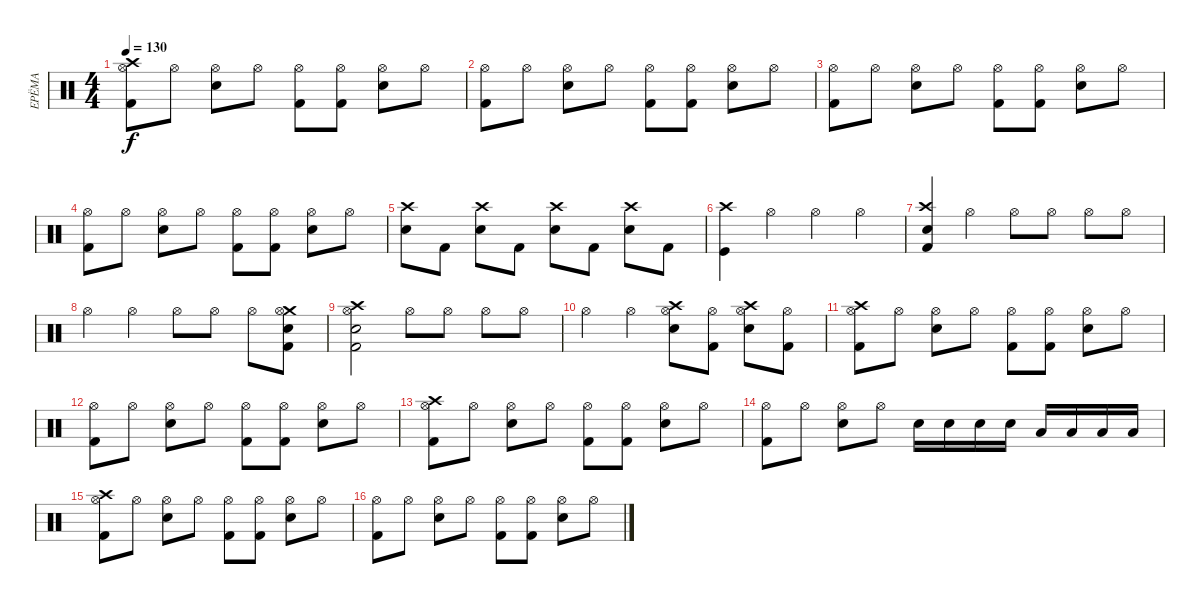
\track ("ЕРЁМА" "ЕРЁМА") {instrument percussion}
\staff {score}
\articulation defaults
\ts (4 4)
\tempo 130
\clef neutral
\ks c
("Hi-Hat (open)" "Kick (hit) 2" "Crash high (hit)").8{dy f} "Hi-Hat (open)".8 ("Hi-Hat (open)" "Electric Snare (hit)").8 "Hi-Hat (open)".8 ("Hi-Hat (open)" "Kick (hit) 2").8 ("Hi-Hat (open)" "Kick (hit) 2").8 ("Hi-Hat (open)" "Electric Snare (hit)").8 "Hi-Hat (open)".8 |
("Hi-Hat (open)" "Kick (hit) 2").8 "Hi-Hat (open)".8 ("Hi-Hat (open)" "Electric Snare (hit)").8 "Hi-Hat (open)".8 ("Hi-Hat (open)" "Kick (hit) 2").8 ("Hi-Hat (open)" "Kick (hit) 2").8 ("Hi-Hat (open)" "Electric Snare (hit)").8 "Hi-Hat (open)".8 |
("Hi-Hat (open)" "Kick (hit) 2").8 "Hi-Hat (open)".8 ("Hi-Hat (open)" "Electric Snare (hit)").8 "Hi-Hat (open)".8 ("Hi-Hat (open)" "Kick (hit) 2").8 ("Hi-Hat (open)" "Kick (hit) 2").8 ("Hi-Hat (open)" "Electric Snare (hit)").8 "Hi-Hat (open)".8 |
("Hi-Hat (open)" "Kick (hit) 2").8 "Hi-Hat (open)".8 ("Hi-Hat (open)" "Electric Snare (hit)").8 "Hi-Hat (open)".8 ("Hi-Hat (open)" "Kick (hit) 2").8 ("Hi-Hat (open)" "Kick (hit) 2").8 ("Hi-Hat (open)" "Electric Snare (hit)").8 "Hi-Hat (open)".8 |
("Electric Snare (hit)" "Crash high (hit)").8 "Kick (hit) 2".8 ("Electric Snare (hit)" "Crash high (hit)").8 "Kick (hit) 2".8 ("Electric Snare (hit)" "Crash high (hit)").8 "Kick (hit) 2".8 ("Electric Snare (hit)" "Crash high (hit)").8 "Kick (hit) 2".8 |
("Kick (hit)" "Crash high (hit)").4 "Hi-Hat (open)".4 "Hi-Hat (open)".4 "Hi-Hat (open)".4 |
("Kick (hit) 2" "Electric Snare (hit)" "Crash high (hit)").4 "Hi-Hat (open)".4 "Hi-Hat (open)".8 "Hi-Hat (open)".8 "Hi-Hat (open)".8 "Hi-Hat (open)".8 |
"Hi-Hat (open)".4 "Hi-Hat (open)".4 "Hi-Hat (open)".8 "Hi-Hat (open)".8 "Hi-Hat (open)".8 ("Electric Snare (hit)" "Kick (hit) 2" "Crash medium (hit)" "Hi-Hat (open)").8 |
("Electric Snare (hit)" "Kick (hit) 2" "Crash high (hit)" "Hi-Hat (open)").2 "Hi-Hat (open)".8 "Hi-Hat (open)".8 "Hi-Hat (open)".8 "Hi-Hat (open)".8 |
"Hi-Hat (open)".4 "Hi-Hat (open)".4 ("Electric Snare (hit)" "Crash high (hit)" "Hi-Hat (open)").8 ("Kick (hit) 2" "Hi-Hat (open)").8 ("Electric Snare (hit)" "Crash high (hit)" "Hi-Hat (open)").8 ("Kick (hit) 2" "Hi-Hat (open)").8 |
("Hi-Hat (open)" "Kick (hit) 2" "Crash high (hit)").8 "Hi-Hat (open)".8 ("Hi-Hat (open)" "Electric Snare (hit)").8 "Hi-Hat (open)".8 ("Hi-Hat (open)" "Kick (hit) 2").8 ("Hi-Hat (open)" "Kick (hit) 2").8 ("Hi-Hat (open)" "Electric Snare (hit)").8 "Hi-Hat (open)".8 |
("Hi-Hat (open)" "Kick (hit) 2").8 "Hi-Hat (open)".8 ("Hi-Hat (open)" "Electric Snare (hit)").8 "Hi-Hat (open)".8 ("Hi-Hat (open)" "Kick (hit) 2").8 ("Hi-Hat (open)" "Kick (hit) 2").8 ("Hi-Hat (open)" "Electric Snare (hit)").8 "Hi-Hat (open)".8 |
("Hi-Hat (open)" "Kick (hit) 2" "Crash high (hit)").8 "Hi-Hat (open)".8 ("Hi-Hat (open)" "Electric Snare (hit)").8 "Hi-Hat (open)".8 ("Hi-Hat (open)" "Kick (hit) 2").8 ("Hi-Hat (open)" "Kick (hit) 2").8 ("Hi-Hat (open)" "Electric Snare (hit)").8 "Hi-Hat (open)".8 |
("Hi-Hat (open)" "Kick (hit) 2").8 "Hi-Hat (open)".8 ("Hi-Hat (open)" "Electric Snare (hit)").8 "Hi-Hat (open)".8 "Electric Snare (hit)".16 "Electric Snare (hit)".16 "Electric Snare (hit)".16 "Electric Snare (hit)".16 "Low Tom (hit)".16 "Low Tom (hit)".16 "Low Tom (hit)".16 "Low Tom (hit)".16 |
("Hi-Hat (open)" "Kick (hit) 2" "Crash high (hit)").8 "Hi-Hat (open)".8 ("Hi-Hat (open)" "Electric Snare (hit)").8 "Hi-Hat (open)".8 ("Hi-Hat (open)" "Kick (hit) 2").8 ("Hi-Hat (open)" "Kick (hit) 2").8 ("Hi-Hat (open)" "Electric Snare (hit)").8 "Hi-Hat (open)".8 |
("Hi-Hat (open)" "Kick (hit) 2").8 "Hi-Hat (open)".8 ("Hi-Hat (open)" "Electric Snare (hit)").8 "Hi-Hat (open)".8 ("Hi-Hat (open)" "Kick (hit) 2").8 ("Hi-Hat (open)" "Kick (hit) 2").8 ("Hi-Hat (open)" "Electric Snare (hit)").8 "Hi-Hat (open)".8
